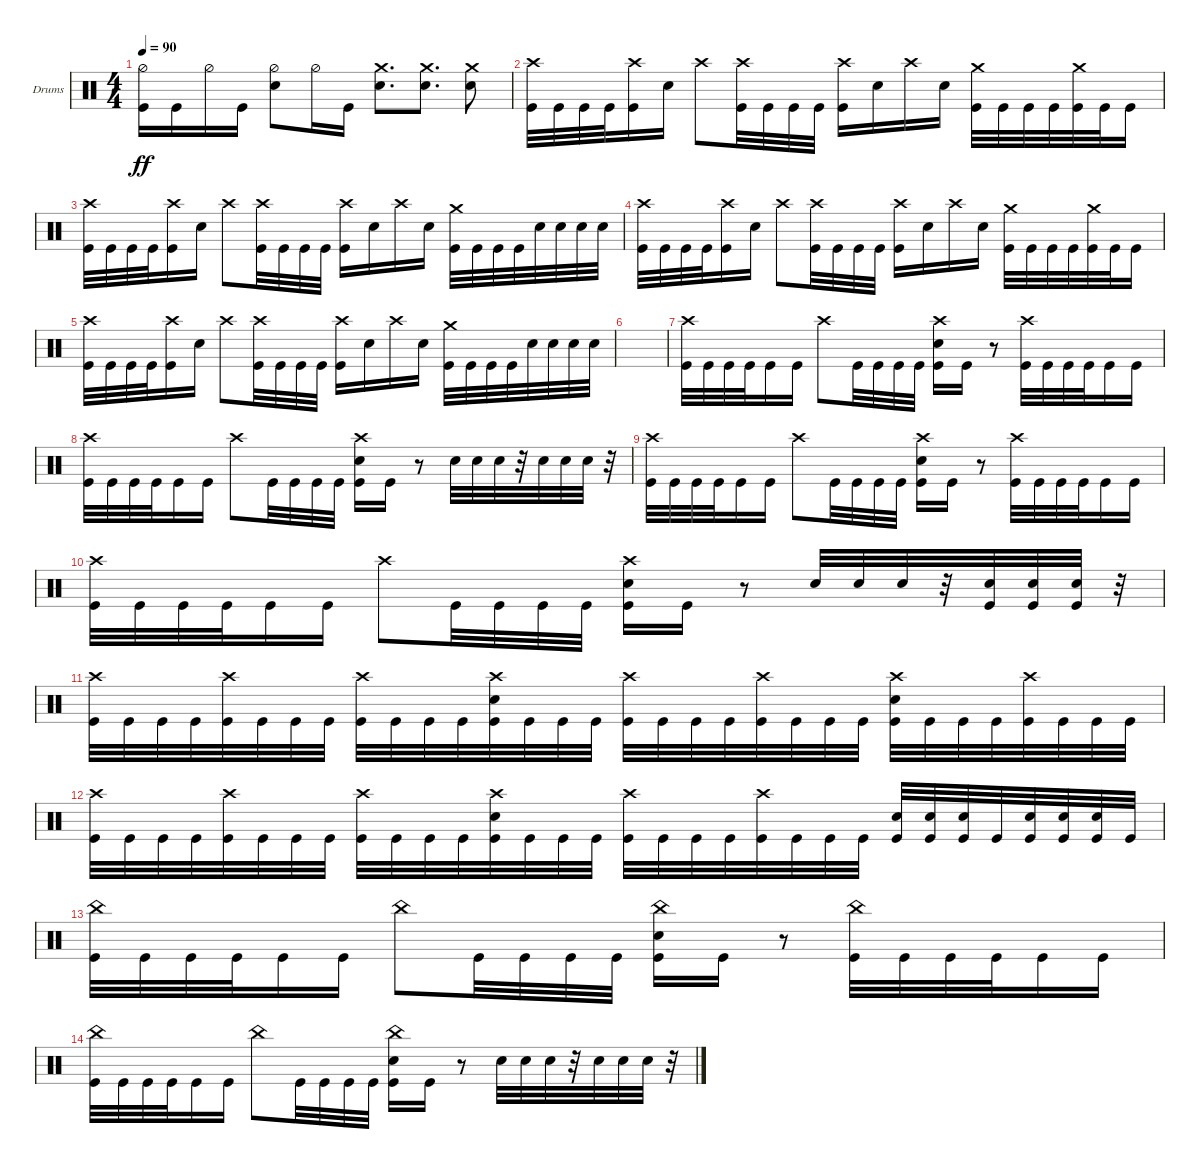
\bracketExtendMode groupsimilarinstruments
\firstSystemTrackNameOrientation horizontal
\otherSystemsTrackNameOrientation horizontal
\track ("Drumkit" "Drums") {instrument percussion}
\staff {score}
\articulation defaults
\ts (4 4)
\tempo 90
\clef neutral
\ks c
("Kick (hit)" "Hi-Hat (half)").16{dy ff} "Kick (hit)".16 "Hi-Hat (half)".16 "Kick (hit)".16 ("Snare (hit) 2" "Hi-Hat (half)").8 "Hi-Hat (half)".16 "Kick (hit)".16 ("Snare (hit) 2" "Crash medium (hit)").8{d} ("Snare (hit) 2" "Crash medium (hit)").8{d} ("Snare (hit) 2" "Crash medium (hit)").8 |
("Kick (hit)" "Crash high (hit)").32 "Kick (hit)".32 "Kick (hit)".32 "Kick (hit)".32 ("Kick (hit)" "Crash high (hit)").16 "Snare (hit) 2".16 "Crash high (hit)".8 ("Kick (hit)" "Crash high (hit)").32 "Kick (hit)".32 "Kick (hit)".32 "Kick (hit)".32 ("Kick (hit)" "Crash high (hit)").16 "Snare (hit) 2".16 "Crash high (hit)".16 "Snare (hit) 2".16 ("Kick (hit)" "Crash medium (hit)").32 "Kick (hit)".32 "Kick (hit)".32 "Kick (hit)".32 ("Kick (hit)" "Crash medium (hit)").32 "Kick (hit)".32 "Kick (hit)".16 |
("Kick (hit)" "Crash high (hit)").32 "Kick (hit)".32 "Kick (hit)".32 "Kick (hit)".32 ("Kick (hit)" "Crash high (hit)").16 "Snare (hit) 2".16 "Crash high (hit)".8 ("Kick (hit)" "Crash high (hit)").32 "Kick (hit)".32 "Kick (hit)".32 "Kick (hit)".32 ("Kick (hit)" "Crash high (hit)").16 "Snare (hit) 2".16 "Crash high (hit)".16 "Snare (hit) 2".16 ("Kick (hit)" "Crash medium (hit)").32 "Kick (hit)".32 "Kick (hit)".32 "Kick (hit)".32 "Snare (hit) 2".32 "Snare (hit) 2".32 "Snare (hit) 2".32 "Snare (hit) 2".32 |
("Kick (hit)" "Crash high (hit)").32 "Kick (hit)".32 "Kick (hit)".32 "Kick (hit)".32 ("Kick (hit)" "Crash high (hit)").16 "Snare (hit) 2".16 "Crash high (hit)".8 ("Kick (hit)" "Crash high (hit)").32 "Kick (hit)".32 "Kick (hit)".32 "Kick (hit)".32 ("Kick (hit)" "Crash high (hit)").16 "Snare (hit) 2".16 "Crash high (hit)".16 "Snare (hit) 2".16 ("Kick (hit)" "Crash medium (hit)").32 "Kick (hit)".32 "Kick (hit)".32 "Kick (hit)".32 ("Kick (hit)" "Crash medium (hit)").32 "Kick (hit)".32 "Kick (hit)".16 |
("Kick (hit)" "Crash high (hit)").32 "Kick (hit)".32 "Kick (hit)".32 "Kick (hit)".32 ("Kick (hit)" "Crash high (hit)").16 "Snare (hit) 2".16 "Crash high (hit)".8 ("Kick (hit)" "Crash high (hit)").32 "Kick (hit)".32 "Kick (hit)".32 "Kick (hit)".32 ("Kick (hit)" "Crash high (hit)").16 "Snare (hit) 2".16 "Crash high (hit)".16 "Snare (hit) 2".16 ("Kick (hit)" "Crash medium (hit)").32 "Kick (hit)".32 "Kick (hit)".32 "Kick (hit)".32 "Snare (hit) 2".32 "Snare (hit) 2".32 "Snare (hit) 2".32 "Snare (hit) 2".32 |
|
("Kick (hit)" "Crash high (hit)").32 "Kick (hit)".32 "Kick (hit)".32 "Kick (hit)".32 "Kick (hit)".16 "Kick (hit)".16 "Crash high (hit)".8 "Kick (hit)".32 "Kick (hit)".32 "Kick (hit)".32 "Kick (hit)".32 ("Kick (hit)" "Crash high (hit)" "Snare (hit) 2").16 "Kick (hit)".16 r.8 ("Crash high (hit)" "Kick (hit)").32 "Kick (hit)".32 "Kick (hit)".32 "Kick (hit)".32 "Kick (hit)".16 "Kick (hit)".16 |
("Kick (hit)" "Crash high (hit)").32 "Kick (hit)".32 "Kick (hit)".32 "Kick (hit)".32 "Kick (hit)".16 "Kick (hit)".16 "Crash high (hit)".8 "Kick (hit)".32 "Kick (hit)".32 "Kick (hit)".32 "Kick (hit)".32 ("Kick (hit)" "Crash high (hit)" "Snare (hit) 2").16 "Kick (hit)".16 r.8 "Snare (hit) 2".32 "Snare (hit) 2".32 "Snare (hit) 2".32 r.32 "Snare (hit) 2".32 "Snare (hit) 2".32 "Snare (hit) 2".32 r.32 |
("Kick (hit)" "Crash high (hit)").32 "Kick (hit)".32 "Kick (hit)".32 "Kick (hit)".32 "Kick (hit)".16 "Kick (hit)".16 "Crash high (hit)".8 "Kick (hit)".32 "Kick (hit)".32 "Kick (hit)".32 "Kick (hit)".32 ("Kick (hit)" "Crash high (hit)" "Snare (hit) 2").16 "Kick (hit)".16 r.8 ("Crash high (hit)" "Kick (hit)").32 "Kick (hit)".32 "Kick (hit)".32 "Kick (hit)".32 "Kick (hit)".16 "Kick (hit)".16 |
("Kick (hit)" "Crash high (hit)").32 "Kick (hit)".32 "Kick (hit)".32 "Kick (hit)".32 "Kick (hit)".16 "Kick (hit)".16 "Crash high (hit)".8 "Kick (hit)".32 "Kick (hit)".32 "Kick (hit)".32 "Kick (hit)".32 ("Kick (hit)" "Crash high (hit)" "Snare (hit) 2").16 "Kick (hit)".16 r.8 "Snare (hit) 2".32 "Snare (hit) 2".32 "Snare (hit) 2".32 r.32 ("Kick (hit)" "Snare (hit) 2").32 ("Kick (hit)" "Snare (hit) 2").32 ("Kick (hit)" "Snare (hit) 2").32 r.32 |
("Kick (hit)" "Crash high (hit)").32 "Kick (hit)".32 "Kick (hit)".32 "Kick (hit)".32 ("Kick (hit)" "Crash high (hit)").32 "Kick (hit)".32 "Kick (hit)".32 "Kick (hit)".32 ("Kick (hit)" "Crash high (hit)").32 "Kick (hit)".32 "Kick (hit)".32 "Kick (hit)".32 ("Kick (hit)" "Crash high (hit)" "Snare (hit) 2").32 "Kick (hit)".32 "Kick (hit)".32 "Kick (hit)".32 ("Kick (hit)" "Crash high (hit)").32 "Kick (hit)".32 "Kick (hit)".32 "Kick (hit)".32 ("Kick (hit)" "Crash high (hit)").32 "Kick (hit)".32 "Kick (hit)".32 "Kick (hit)".32 ("Kick (hit)" "Crash high (hit)" "Snare (hit) 2").32 "Kick (hit)".32 "Kick (hit)".32 "Kick (hit)".32 ("Kick (hit)" "Crash high (hit)").32 "Kick (hit)".32 "Kick (hit)".32 "Kick (hit)".32 |
("Kick (hit)" "Crash high (hit)").32 "Kick (hit)".32 "Kick (hit)".32 "Kick (hit)".32 ("Kick (hit)" "Crash high (hit)").32 "Kick (hit)".32 "Kick (hit)".32 "Kick (hit)".32 ("Kick (hit)" "Crash high (hit)").32 "Kick (hit)".32 "Kick (hit)".32 "Kick (hit)".32 ("Kick (hit)" "Crash high (hit)" "Snare (hit) 2").32 "Kick (hit)".32 "Kick (hit)".32 "Kick (hit)".32 ("Kick (hit)" "Crash high (hit)").32 "Kick (hit)".32 "Kick (hit)".32 "Kick (hit)".32 ("Kick (hit)" "Crash high (hit)").32 "Kick (hit)".32 "Kick (hit)".32 "Kick (hit)".32 ("Kick (hit)" "Snare (hit) 2").32 ("Kick (hit)" "Snare (hit) 2").32 ("Kick (hit)" "Snare (hit) 2").32 "Kick (hit)".32 ("Kick (hit)" "Snare (hit) 2").32 ("Kick (hit)" "Snare (hit) 2").32 ("Kick (hit)" "Snare (hit) 2").32 "Kick (hit)".32 |
("Kick (hit)" "China (hit)").32 "Kick (hit)".32 "Kick (hit)".32 "Kick (hit)".32 "Kick (hit)".16 "Kick (hit)".16 "China (hit)".8 "Kick (hit)".32 "Kick (hit)".32 "Kick (hit)".32 "Kick (hit)".32 ("Kick (hit)" "Snare (hit) 2" "China (hit)").16 "Kick (hit)".16 r.8 ("Kick (hit)" "China (hit)").32 "Kick (hit)".32 "Kick (hit)".32 "Kick (hit)".32 "Kick (hit)".16 "Kick (hit)".16 |
("Kick (hit)" "China (hit)").32 "Kick (hit)".32 "Kick (hit)".32 "Kick (hit)".32 "Kick (hit)".16 "Kick (hit)".16 "China (hit)".8 "Kick (hit)".32 "Kick (hit)".32 "Kick (hit)".32 "Kick (hit)".32 ("Kick (hit)" "Snare (hit) 2" "China (hit)").16 "Kick (hit)".16 r.8 "Snare (hit) 2".32 "Snare (hit) 2".32 "Snare (hit) 2".32 r.32 "Snare (hit) 2".32 "Snare (hit) 2".32 "Snare (hit) 2".32 r.32
